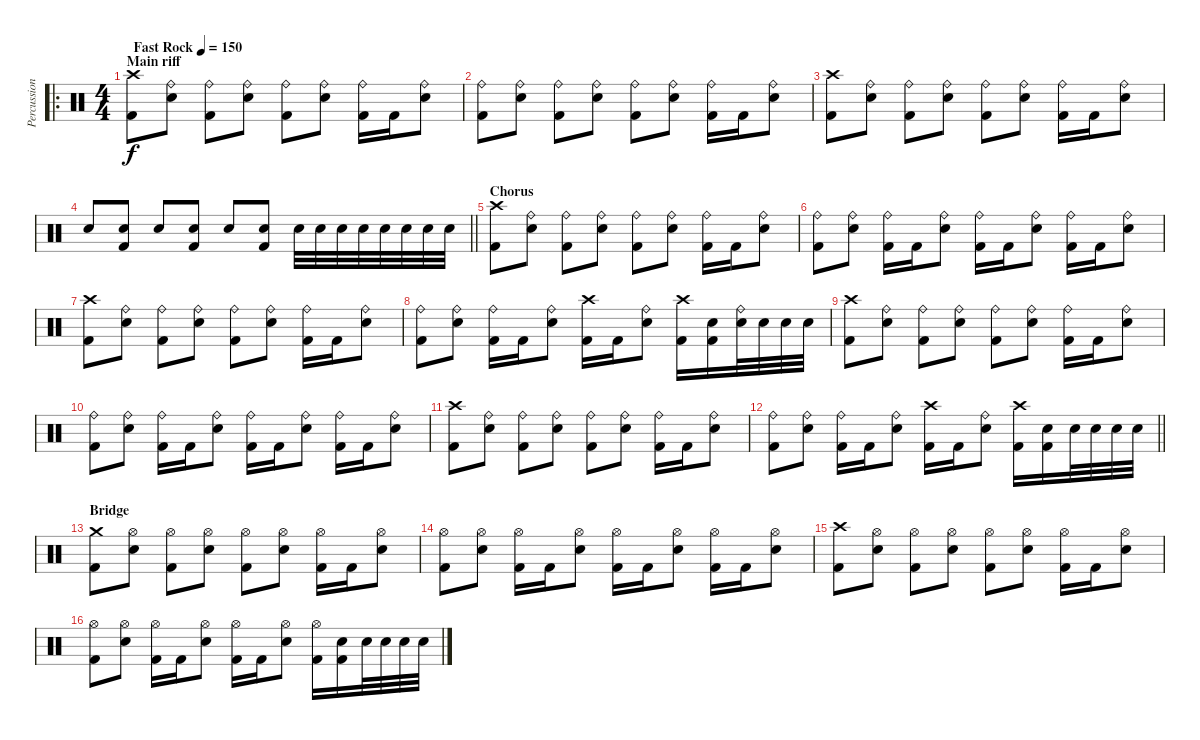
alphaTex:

\track ("Percussion" "Percussion") {instrument percussion}
\staff {score}
\articulation defaults
\ro
\ts (4 4)
\section ("" "Main riff")
\tempo (150 "Fast Rock")
\clef neutral
\ks c
("Crash high (hit)" "Kick (hit) 2").8{dy f} ("Ride (bell)" "Electric Snare (hit)").8 ("Ride (bell)" "Kick (hit) 2").8 ("Ride (bell)" "Electric Snare (hit)").8 ("Ride (bell)" "Kick (hit) 2").8 ("Ride (bell)" "Electric Snare (hit)").8 ("Ride (bell)" "Kick (hit) 2").16 "Kick (hit) 2".16 ("Ride (bell)" "Electric Snare (hit)").8 |
("Ride (bell)" "Kick (hit) 2").8 ("Ride (bell)" "Electric Snare (hit)").8 ("Ride (bell)" "Kick (hit) 2").8 ("Ride (bell)" "Electric Snare (hit)").8 ("Ride (bell)" "Kick (hit) 2").8 ("Ride (bell)" "Electric Snare (hit)").8 ("Ride (bell)" "Kick (hit) 2").16 "Kick (hit) 2".16 ("Ride (bell)" "Electric Snare (hit)").8 |
("Crash high (hit)" "Kick (hit) 2").8 ("Ride (bell)" "Electric Snare (hit)").8 ("Ride (bell)" "Kick (hit) 2").8 ("Ride (bell)" "Electric Snare (hit)").8 ("Ride (bell)" "Kick (hit) 2").8 ("Ride (bell)" "Electric Snare (hit)").8 ("Ride (bell)" "Kick (hit) 2").16 "Kick (hit) 2".16 ("Ride (bell)" "Electric Snare (hit)").8 |
\barLineRight lightlight "Electric Snare (hit)".8
("Electric Snare (hit)" "Kick (hit) 2").8 "Electric Snare (hit)".8 ("Electric Snare (hit)" "Kick (hit) 2").8 "Electric Snare (hit)".8 ("Electric Snare (hit)" "Kick (hit) 2").8 "Electric Snare (hit)".32 "Electric Snare (hit)".32 "Electric Snare (hit)".32 "Electric Snare (hit)".32 "Electric Snare (hit)".32 "Electric Snare (hit)".32 "Electric Snare (hit)".32 "Electric Snare (hit)".32 |
\section ("" "Chorus")
("Crash high (hit)" "Kick (hit) 2").8 ("Ride (bell)" "Electric Snare (hit)").8 ("Ride (bell)" "Kick (hit) 2").8 ("Ride (bell)" "Electric Snare (hit)").8 ("Ride (bell)" "Kick (hit) 2").8 ("Ride (bell)" "Electric Snare (hit)").8 ("Ride (bell)" "Kick (hit) 2").16 "Kick (hit) 2".16 ("Ride (bell)" "Electric Snare (hit)").8 |
("Ride (bell)" "Kick (hit) 2").8 ("Ride (bell)" "Electric Snare (hit)").8 ("Ride (bell)" "Kick (hit) 2").16 "Kick (hit) 2".16 ("Ride (bell)" "Electric Snare (hit)").8 ("Ride (bell)" "Kick (hit) 2").16 "Kick (hit) 2".16 ("Ride (bell)" "Electric Snare (hit)").8 ("Ride (bell)" "Kick (hit) 2").16 "Kick (hit) 2".16 ("Ride (bell)" "Electric Snare (hit)").8 |
("Crash high (hit)" "Kick (hit) 2").8 ("Ride (bell)" "Electric Snare (hit)").8 ("Ride (bell)" "Kick (hit) 2").8 ("Ride (bell)" "Electric Snare (hit)").8 ("Ride (bell)" "Kick (hit) 2").8 ("Ride (bell)" "Electric Snare (hit)").8 ("Ride (bell)" "Kick (hit) 2").16 "Kick (hit) 2".16 ("Ride (bell)" "Electric Snare (hit)").8 |
("Ride (bell)" "Kick (hit) 2").8 ("Ride (bell)" "Electric Snare (hit)").8 ("Ride (bell)" "Kick (hit) 2").16 "Kick (hit) 2".16 ("Ride (bell)" "Electric Snare (hit)").8 ("Crash high (hit)" "Kick (hit) 2").16 "Kick (hit) 2".16 ("Ride (bell)" "Electric Snare (hit)").8 ("Crash high (hit)" "Kick (hit) 2").16 ("Electric Snare (hit)" "Kick (hit) 2").16 ("Ride (bell)" "Electric Snare (hit)").32 "Electric Snare (hit)".32 "Electric Snare (hit)".32 "Electric Snare (hit)".32 |
("Crash high (hit)" "Kick (hit) 2").8 ("Ride (bell)" "Electric Snare (hit)").8 ("Ride (bell)" "Kick (hit) 2").8 ("Ride (bell)" "Electric Snare (hit)").8 ("Ride (bell)" "Kick (hit) 2").8 ("Ride (bell)" "Electric Snare (hit)").8 ("Ride (bell)" "Kick (hit) 2").16 "Kick (hit) 2".16 ("Ride (bell)" "Electric Snare (hit)").8 |
("Ride (bell)" "Kick (hit) 2").8 ("Ride (bell)" "Electric Snare (hit)").8 ("Ride (bell)" "Kick (hit) 2").16 "Kick (hit) 2".16 ("Ride (bell)" "Electric Snare (hit)").8 ("Ride (bell)" "Kick (hit) 2").16 "Kick (hit) 2".16 ("Ride (bell)" "Electric Snare (hit)").8 ("Ride (bell)" "Kick (hit) 2").16 "Kick (hit) 2".16 ("Ride (bell)" "Electric Snare (hit)").8 |
("Crash high (hit)" "Kick (hit) 2").8 ("Ride (bell)" "Electric Snare (hit)").8 ("Ride (bell)" "Kick (hit) 2").8 ("Ride (bell)" "Electric Snare (hit)").8 ("Ride (bell)" "Kick (hit) 2").8 ("Ride (bell)" "Electric Snare (hit)").8 ("Ride (bell)" "Kick (hit) 2").16 "Kick (hit) 2".16 ("Ride (bell)" "Electric Snare (hit)").8 |
\barLineRight lightlight
("Ride (bell)" "Kick (hit) 2").8 ("Ride (bell)" "Electric Snare (hit)").8 ("Ride (bell)" "Kick (hit) 2").16 "Kick (hit) 2".16 ("Ride (bell)" "Electric Snare (hit)").8 ("Crash high (hit)" "Kick (hit) 2").16 "Kick (hit) 2".16 ("Ride (bell)" "Electric Snare (hit)").8 ("Crash high (hit)" "Kick (hit) 2").16 ("Electric Snare (hit)" "Kick (hit) 2").16 "Electric Snare (hit)".32 "Electric Snare (hit)".32 "Electric Snare (hit)".32 "Electric Snare (hit)".32 |
\section ("" "Bridge")
("Crash medium (hit)" "Kick (hit) 2").8 ("Hi-Hat (open)" "Electric Snare (hit)").8 ("Hi-Hat (open)" "Kick (hit) 2").8 ("Hi-Hat (open)" "Electric Snare (hit)").8 ("Hi-Hat (open)" "Kick (hit) 2").8 ("Hi-Hat (open)" "Electric Snare (hit)").8 ("Hi-Hat (open)" "Kick (hit) 2").16 "Kick (hit) 2".16 ("Hi-Hat (open)" "Electric Snare (hit)").8 |
("Hi-Hat (open)" "Kick (hit) 2").8 ("Hi-Hat (open)" "Electric Snare (hit)").8 ("Hi-Hat (open)" "Kick (hit) 2").16 "Kick (hit) 2".16 ("Hi-Hat (open)" "Electric Snare (hit)").8 ("Hi-Hat (open)" "Kick (hit) 2").16 "Kick (hit) 2".16 ("Hi-Hat (open)" "Electric Snare (hit)").8 ("Hi-Hat (open)" "Kick (hit) 2").16 "Kick (hit) 2".16 ("Hi-Hat (open)" "Electric Snare (hit)").8 |
("Crash high (hit)" "Kick (hit) 2").8 ("Hi-Hat (open)" "Electric Snare (hit)").8 ("Hi-Hat (open)" "Kick (hit) 2").8 ("Hi-Hat (open)" "Electric Snare (hit)").8 ("Hi-Hat (open)" "Kick (hit) 2").8 ("Hi-Hat (open)" "Electric Snare (hit)").8 ("Hi-Hat (open)" "Kick (hit) 2").16 "Kick (hit) 2".16 ("Hi-Hat (open)" "Electric Snare (hit)").8 |
("Hi-Hat (open)" "Kick (hit) 2").8 ("Hi-Hat (open)" "Electric Snare (hit)").8 ("Hi-Hat (open)" "Kick (hit) 2").16 "Kick (hit) 2".16 ("Hi-Hat (open)" "Electric Snare (hit)").8 ("Hi-Hat (open)" "Kick (hit) 2").16 "Kick (hit) 2".16 ("Hi-Hat (open)" "Electric Snare (hit)").8 ("Hi-Hat (open)" "Kick (hit) 2").16 ("Electric Snare (hit)" "Kick (hit) 2").16 "Electric Snare (hit)".32 "Electric Snare (hit)".32 "Electric Snare (hit)".32 "Electric Snare (hit)".32
